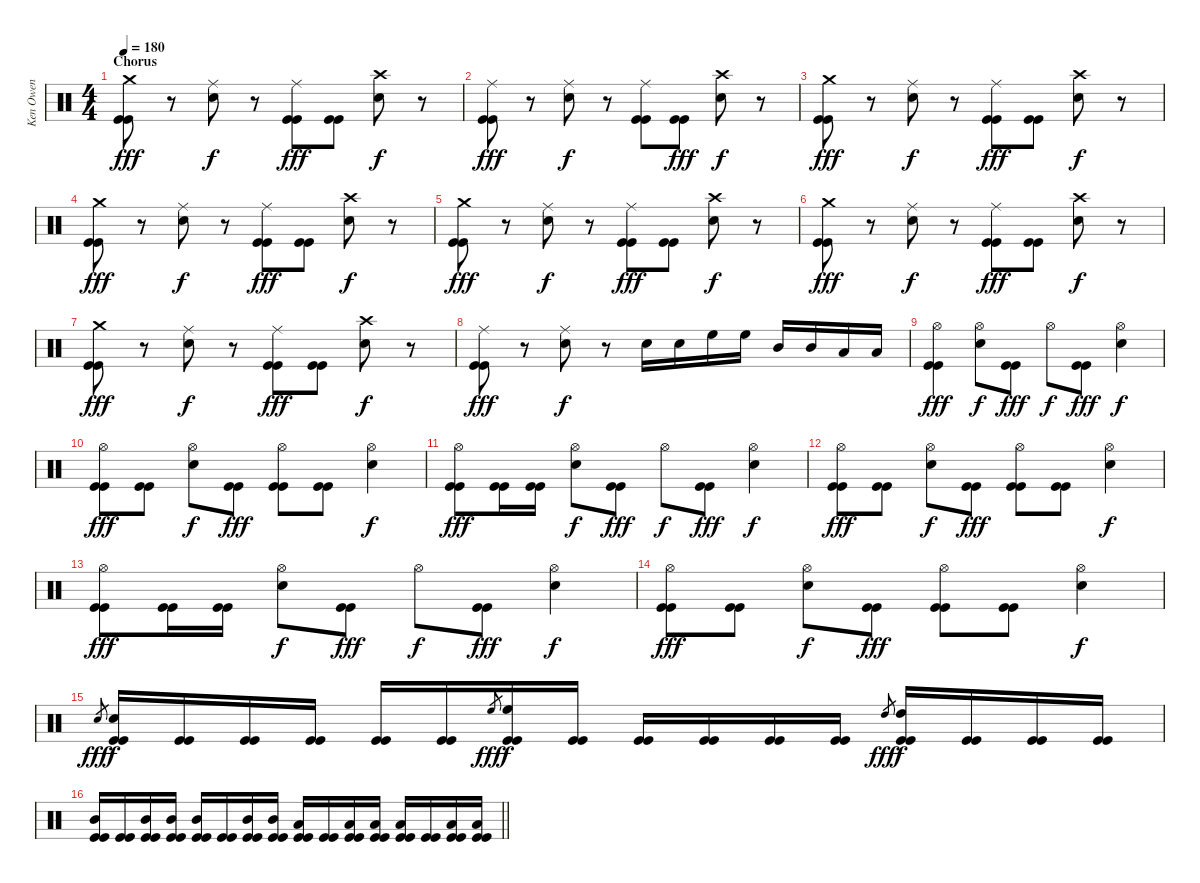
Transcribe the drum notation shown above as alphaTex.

\track ("Ken Owen" "Ken Owen") {instrument percussion}
\staff {score}
\articulation defaults
\ts (4 4)
\section ("" "Chorus")
\tempo 180
\clef neutral
\ks c
("Crash medium (hit)" "Kick (hit)" "Kick (hit)").8{dy fff} r.8 ("Ride (middle)" "Snare (hit) 2").8{dy f} r.8 ("Ride (middle)" "Kick (hit)" "Kick (hit)").8{dy fff} ("Kick (hit)" "Kick (hit)").8 ("Crash high (hit)" "Snare (hit) 2").8{dy f} r.8 |
("Ride (middle)" "Kick (hit)" "Kick (hit)").8{dy fff} r.8 ("Ride (middle)" "Snare (hit) 2").8{dy f} r.8 ("Ride (middle)" "Kick (hit)" "Kick (hit)").8 ("Kick (hit)" "Kick (hit)").8{dy fff} ("Crash high (hit)" "Snare (hit) 2").8{dy f} r.8 |
("Crash medium (hit)" "Kick (hit)" "Kick (hit)").8{dy fff} r.8 ("Ride (middle)" "Snare (hit) 2").8{dy f} r.8 ("Ride (middle)" "Kick (hit)" "Kick (hit)").8{dy fff} ("Kick (hit)" "Kick (hit)").8 ("Crash high (hit)" "Snare (hit) 2").8{dy f} r.8 |
("Crash medium (hit)" "Kick (hit)" "Kick (hit)").8{dy fff} r.8 ("Ride (middle)" "Snare (hit) 2").8{dy f} r.8 ("Ride (middle)" "Kick (hit)" "Kick (hit)").8{dy fff} ("Kick (hit)" "Kick (hit)").8 ("Crash high (hit)" "Snare (hit) 2").8{dy f} r.8 |
("Crash medium (hit)" "Kick (hit)" "Kick (hit)").8{dy fff} r.8 ("Ride (middle)" "Snare (hit) 2").8{dy f} r.8 ("Ride (middle)" "Kick (hit)" "Kick (hit)").8{dy fff} ("Kick (hit)" "Kick (hit)").8 ("Crash high (hit)" "Snare (hit) 2").8{dy f} r.8 |
("Crash medium (hit)" "Kick (hit)" "Kick (hit)").8{dy fff} r.8 ("Ride (middle)" "Snare (hit) 2").8{dy f} r.8 ("Ride (middle)" "Kick (hit)" "Kick (hit)").8{dy fff} ("Kick (hit)" "Kick (hit)").8 ("Crash high (hit)" "Snare (hit) 2").8{dy f} r.8 |
("Crash medium (hit)" "Kick (hit)" "Kick (hit)").8{dy fff} r.8 ("Ride (middle)" "Snare (hit) 2").8{dy f} r.8 ("Ride (middle)" "Kick (hit)" "Kick (hit)").8{dy fff} ("Kick (hit)" "Kick (hit)").8 ("Crash high (hit)" "Snare (hit) 2").8{dy f} r.8 |
("Ride (middle)" "Kick (hit)" "Kick (hit)").8{dy fff} r.8 ("Ride (middle)" "Snare (hit) 2").8{dy f} r.8 "Snare (hit) 2".16 "Snare (hit) 2".16 "High Floor Tom (hit)".16 "High Floor Tom (hit)".16 "Mid Tom (hit)".16 "Mid Tom (hit)".16 "Low Tom (hit)".16 "Low Tom (hit)".16 |
("Hi-Hat (open)" "Kick (hit)" "Kick (hit)").4{dy fff} ("Hi-Hat (open)" "Snare (hit) 2").8{dy f} ("Kick (hit)" "Kick (hit)").8{dy fff} "Hi-Hat (open)".8{dy f} ("Kick (hit)" "Kick (hit)").8{dy fff} ("Hi-Hat (open)" "Snare (hit) 2").4{dy f} |
("Hi-Hat (open)" "Kick (hit)" "Kick (hit)").8{dy fff} ("Kick (hit)" "Kick (hit)").8 ("Hi-Hat (open)" "Snare (hit) 2").8{dy f} ("Kick (hit)" "Kick (hit)").8{dy fff} ("Hi-Hat (open)" "Kick (hit)" "Kick (hit)").8 ("Kick (hit)" "Kick (hit)").8 ("Hi-Hat (open)" "Snare (hit) 2").4{dy f} |
("Hi-Hat (open)" "Kick (hit)" "Kick (hit)").8{dy fff} ("Kick (hit)" "Kick (hit)").16 ("Kick (hit)" "Kick (hit)").16 ("Hi-Hat (open)" "Snare (hit) 2").8{dy f} ("Kick (hit)" "Kick (hit)").8{dy fff} "Hi-Hat (open)".8{dy f} ("Kick (hit)" "Kick (hit)").8{dy fff} ("Hi-Hat (open)" "Snare (hit) 2").4{dy f} |
("Hi-Hat (open)" "Kick (hit)" "Kick (hit)").8{dy fff} ("Kick (hit)" "Kick (hit)").8 ("Hi-Hat (open)" "Snare (hit) 2").8{dy f} ("Kick (hit)" "Kick (hit)").8{dy fff} ("Hi-Hat (open)" "Kick (hit)" "Kick (hit)").8 ("Kick (hit)" "Kick (hit)").8 ("Hi-Hat (open)" "Snare (hit) 2").4{dy f} |
("Hi-Hat (open)" "Kick (hit)" "Kick (hit)").8{dy fff} ("Kick (hit)" "Kick (hit)").16 ("Kick (hit)" "Kick (hit)").16 ("Hi-Hat (open)" "Snare (hit) 2").8{dy f} ("Kick (hit)" "Kick (hit)").8{dy fff} "Hi-Hat (open)".8{dy f} ("Kick (hit)" "Kick (hit)").8{dy fff} ("Hi-Hat (open)" "Snare (hit) 2").4{dy f} |
("Hi-Hat (open)" "Kick (hit)" "Kick (hit)").8{dy fff} ("Kick (hit)" "Kick (hit)").8 ("Hi-Hat (open)" "Snare (hit) 2").8{dy f} ("Kick (hit)" "Kick (hit)").8{dy fff} ("Hi-Hat (open)" "Kick (hit)" "Kick (hit)").8 ("Kick (hit)" "Kick (hit)").8 ("Hi-Hat (open)" "Snare (hit) 2").4{dy f} |
"Snare (hit) 2".8{gr dy fff} ("Snare (hit) 2" "Kick (hit)" "Kick (hit)").16{dy f} ("Kick (hit)" "Kick (hit)").16 ("Kick (hit)" "Kick (hit)").16 ("Kick (hit)" "Kick (hit)").16 ("Kick (hit)" "Kick (hit)").16 ("Kick (hit)" "Kick (hit)").16 "High Floor Tom (hit)".8{gr dy fff} ("High Floor Tom (hit)" "Kick (hit)" "Kick (hit)").16{dy f} ("Kick (hit)" "Kick (hit)").16 ("Kick (hit)" "Kick (hit)").16 ("Kick (hit)" "Kick (hit)").16 ("Kick (hit)" "Kick (hit)").16 ("Kick (hit)" "Kick (hit)").16 "High Tom (hit)".8{gr dy fff} ("High Tom (hit)" "Kick (hit)" "Kick (hit)").16{dy f} ("Kick (hit)" "Kick (hit)").16 ("Kick (hit)" "Kick (hit)").16 ("Kick (hit)" "Kick (hit)").16 |
\barLineRight lightlight
("Mid Tom (hit)" "Kick (hit)" "Kick (hit)").16 ("Kick (hit)" "Kick (hit)").16 ("Mid Tom (hit)" "Kick (hit)" "Kick (hit)").16 ("Mid Tom (hit)" "Kick (hit)" "Kick (hit)").16 ("Mid Tom (hit)" "Kick (hit)" "Kick (hit)").16 ("Kick (hit)" "Kick (hit)").16 ("Mid Tom (hit)" "Kick (hit)" "Kick (hit)").16 ("Mid Tom (hit)" "Kick (hit)" "Kick (hit)").16 ("Low Tom (hit)" "Kick (hit)" "Kick (hit)").16 ("Kick (hit)" "Kick (hit)").16 ("Low Tom (hit)" "Kick (hit)" "Kick (hit)").16 ("Low Tom (hit)" "Kick (hit)" "Kick (hit)").16 ("Low Tom (hit)" "Kick (hit)" "Kick (hit)").16 ("Kick (hit)" "Kick (hit)").16 ("Low Tom (hit)" "Kick (hit)" "Kick (hit)").16 ("Low Tom (hit)" "Kick (hit)" "Kick (hit)").16
